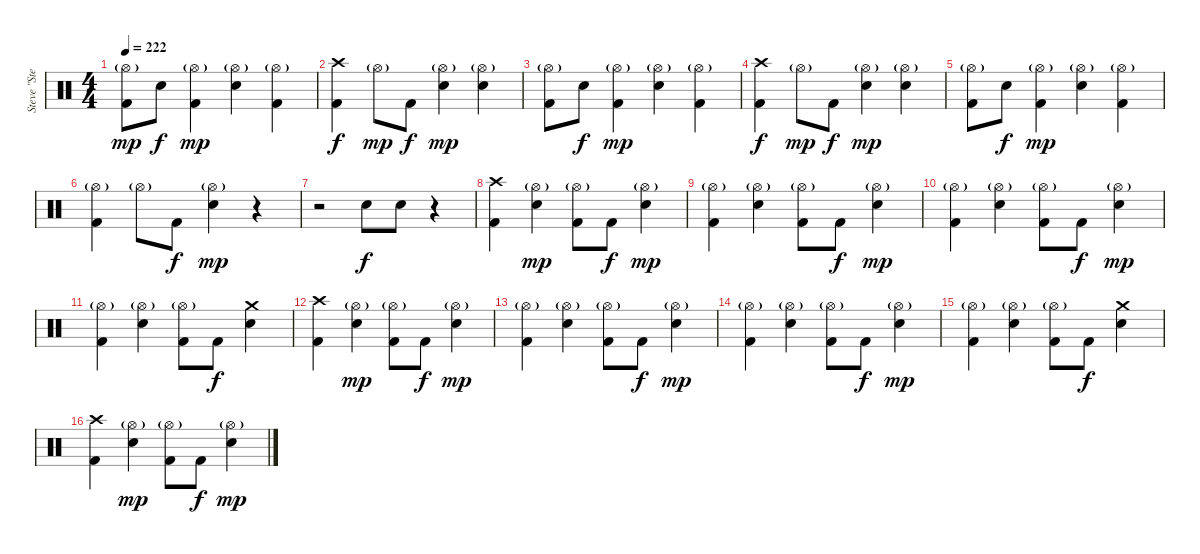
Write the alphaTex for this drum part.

\track ("Steve \"Stevo32\" Jocz " "Steve \"Ste") {instrument percussion}
\staff {score}
\articulation defaults
\ts (4 4)
\tempo 222
\clef neutral
\ks c
("Hi-Hat (open)"{g} "Kick (hit) 2").8{dy mp} "Electric Snare (hit)".8{dy f} ("Hi-Hat (open)"{g} "Kick (hit) 2").4{dy mp} ("Hi-Hat (open)"{g} "Electric Snare (hit)").4 ("Hi-Hat (open)"{g} "Kick (hit) 2").4 |
("Crash high (hit)" "Kick (hit) 2").4{dy f} "Hi-Hat (open)"{g}.8{dy mp} "Kick (hit) 2".8{dy f} ("Hi-Hat (open)"{g} "Electric Snare (hit)").4{dy mp} ("Hi-Hat (open)"{g} "Electric Snare (hit)").4 |
("Hi-Hat (open)"{g} "Kick (hit) 2").8 "Electric Snare (hit)".8{dy f} ("Hi-Hat (open)"{g} "Kick (hit) 2").4{dy mp} ("Hi-Hat (open)"{g} "Electric Snare (hit)").4 ("Hi-Hat (open)"{g} "Kick (hit) 2").4 |
("Crash high (hit)" "Kick (hit) 2").4{dy f} "Hi-Hat (open)"{g}.8{dy mp} "Kick (hit) 2".8{dy f} ("Hi-Hat (open)"{g} "Electric Snare (hit)").4{dy mp} ("Hi-Hat (open)"{g} "Electric Snare (hit)").4 |
("Hi-Hat (open)"{g} "Kick (hit) 2").8 "Electric Snare (hit)".8{dy f} ("Hi-Hat (open)"{g} "Kick (hit) 2").4{dy mp} ("Hi-Hat (open)"{g} "Electric Snare (hit)").4 ("Hi-Hat (open)"{g} "Kick (hit) 2").4 |
("Hi-Hat (open)"{g} "Kick (hit) 2").4 "Hi-Hat (open)"{g}.8 "Kick (hit) 2".8{dy f} ("Hi-Hat (open)"{g} "Electric Snare (hit)").4{dy mp} r.4 |
r.2 "Electric Snare (hit)".8{dy f} "Electric Snare (hit)".8 r.4 |
("Crash high (hit)" "Kick (hit) 2").4 ("Hi-Hat (open)"{g} "Electric Snare (hit)").4{dy mp} ("Hi-Hat (open)"{g} "Kick (hit) 2").8 "Kick (hit) 2".8{dy f} ("Hi-Hat (open)"{g} "Electric Snare (hit)").4{dy mp} |
("Hi-Hat (open)"{g} "Kick (hit) 2").4 ("Hi-Hat (open)"{g} "Electric Snare (hit)").4 ("Hi-Hat (open)"{g} "Kick (hit) 2").8 "Kick (hit) 2".8{dy f} ("Hi-Hat (open)"{g} "Electric Snare (hit)").4{dy mp} |
("Hi-Hat (open)"{g} "Kick (hit) 2").4 ("Hi-Hat (open)"{g} "Electric Snare (hit)").4 ("Hi-Hat (open)"{g} "Kick (hit) 2").8 "Kick (hit) 2".8{dy f} ("Hi-Hat (open)"{g} "Electric Snare (hit)").4{dy mp} |
("Hi-Hat (open)"{g} "Kick (hit) 2").4 ("Hi-Hat (open)"{g} "Electric Snare (hit)").4 ("Hi-Hat (open)"{g} "Kick (hit) 2").8 "Kick (hit) 2".8{dy f} ("Crash medium (hit)" "Electric Snare (hit)").4 |
("Crash high (hit)" "Kick (hit) 2").4 ("Hi-Hat (open)"{g} "Electric Snare (hit)").4{dy mp} ("Hi-Hat (open)"{g} "Kick (hit) 2").8 "Kick (hit) 2".8{dy f} ("Hi-Hat (open)"{g} "Electric Snare (hit)").4{dy mp} |
("Hi-Hat (open)"{g} "Kick (hit) 2").4 ("Hi-Hat (open)"{g} "Electric Snare (hit)").4 ("Hi-Hat (open)"{g} "Kick (hit) 2").8 "Kick (hit) 2".8{dy f} ("Hi-Hat (open)"{g} "Electric Snare (hit)").4{dy mp} |
("Hi-Hat (open)"{g} "Kick (hit) 2").4 ("Hi-Hat (open)"{g} "Electric Snare (hit)").4 ("Hi-Hat (open)"{g} "Kick (hit) 2").8 "Kick (hit) 2".8{dy f} ("Hi-Hat (open)"{g} "Electric Snare (hit)").4{dy mp} |
("Hi-Hat (open)"{g} "Kick (hit) 2").4 ("Hi-Hat (open)"{g} "Electric Snare (hit)").4 ("Hi-Hat (open)"{g} "Kick (hit) 2").8 "Kick (hit) 2".8{dy f} ("Crash medium (hit)" "Electric Snare (hit)").4 |
("Crash high (hit)" "Kick (hit) 2").4 ("Hi-Hat (open)"{g} "Electric Snare (hit)").4{dy mp} ("Hi-Hat (open)"{g} "Kick (hit) 2").8 "Kick (hit) 2".8{dy f} ("Hi-Hat (open)"{g} "Electric Snare (hit)").4{dy mp}
